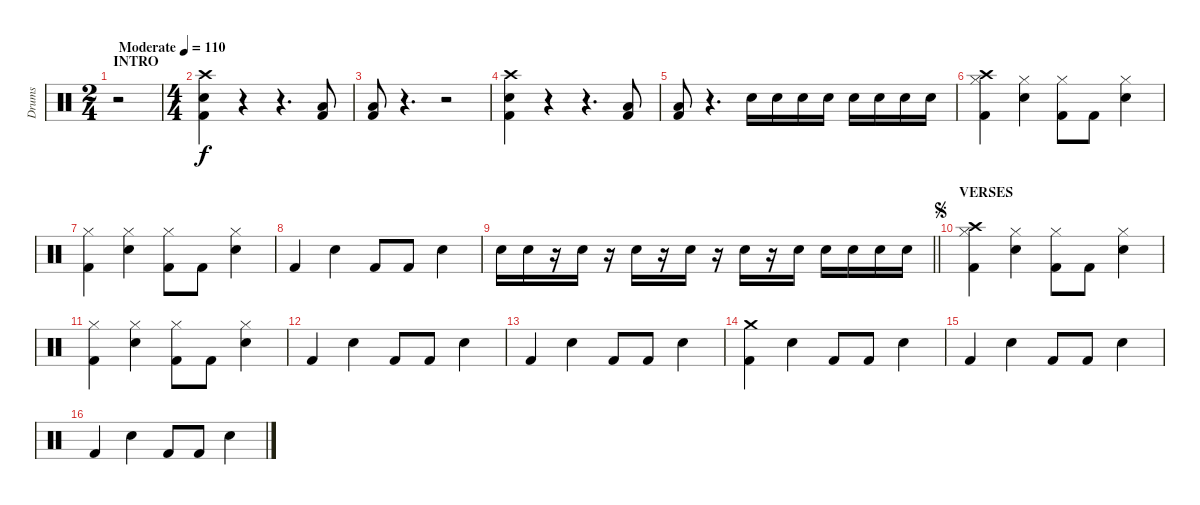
\track ("Drums" "Drums") {instrument percussion}
\staff {score}
\articulation defaults
\ts (2 4)
\section ("" "INTRO")
\tempo (110 "Moderate")
\clef neutral
\ks aminor
r.2{dy f} |
\ts (4 4)
("Crash high (hit)" "Electric Snare (hit)" "Kick (hit) 2").4 r.4 r.4{d} ("Low Tom (hit)" "Kick (hit) 2").8 |
("Low Tom (hit)" "Kick (hit) 2").8 r.4{d} r.2 |
("Crash high (hit)" "Electric Snare (hit)" "Kick (hit) 2").4 r.4 r.4{d} ("Low Tom (hit)" "Kick (hit) 2").8 |
("Low Tom (hit)" "Kick (hit) 2").8 r.4{d} "Electric Snare (hit)".16 "Electric Snare (hit)".16 "Electric Snare (hit)".16 "Electric Snare (hit)".16 "Electric Snare (hit)".16 "Electric Snare (hit)".16 "Electric Snare (hit)".16 "Electric Snare (hit)".16 |
("Crash high (hit)" "Hi-Hat (closed)" "Kick (hit) 2").4 ("Hi-Hat (closed)" "Electric Snare (hit)").4 ("Hi-Hat (closed)" "Kick (hit) 2").8 "Kick (hit) 2".8 ("Hi-Hat (closed)" "Electric Snare (hit)").4 |
("Hi-Hat (closed)" "Kick (hit) 2").4 ("Hi-Hat (closed)" "Electric Snare (hit)").4 ("Hi-Hat (closed)" "Kick (hit) 2").8 "Kick (hit) 2".8 ("Hi-Hat (closed)" "Electric Snare (hit)").4 |
"Kick (hit) 2".4 "Electric Snare (hit)".4 "Kick (hit) 2".8 "Kick (hit) 2".8 "Electric Snare (hit)".4 |
\barLineRight lightlight "Electric Snare (hit)".16 "Electric Snare (hit)".16
r.16 "Electric Snare (hit)".16 r.16 "Electric Snare (hit)".16 r.16 "Electric Snare (hit)".16 r.16 "Electric Snare (hit)".16 r.16 "Electric Snare (hit)".16 "Electric Snare (hit)".16 "Electric Snare (hit)".16 "Electric Snare (hit)".16 "Electric Snare (hit)".16 |
\section ("" "VERSES")
\jump segno
("Crash high (hit)" "Hi-Hat (closed)" "Kick (hit) 2").4 ("Hi-Hat (closed)" "Electric Snare (hit)").4 ("Hi-Hat (closed)" "Kick (hit) 2").8 "Kick (hit) 2".8 ("Hi-Hat (closed)" "Electric Snare (hit)").4 |
("Hi-Hat (closed)" "Kick (hit) 2").4 ("Hi-Hat (closed)" "Electric Snare (hit)").4 ("Hi-Hat (closed)" "Kick (hit) 2").8 "Kick (hit) 2".8 ("Hi-Hat (closed)" "Electric Snare (hit)").4 |
"Kick (hit) 2".4 "Electric Snare (hit)".4 "Kick (hit) 2".8 "Kick (hit) 2".8 "Electric Snare (hit)".4 |
"Kick (hit) 2".4 "Electric Snare (hit)".4 "Kick (hit) 2".8 "Kick (hit) 2".8 "Electric Snare (hit)".4 |
("Crash medium (hit)" "Kick (hit) 2").4 "Electric Snare (hit)".4 "Kick (hit) 2".8 "Kick (hit) 2".8 "Electric Snare (hit)".4 |
"Kick (hit) 2".4 "Electric Snare (hit)".4 "Kick (hit) 2".8 "Kick (hit) 2".8 "Electric Snare (hit)".4 |
"Kick (hit) 2".4 "Electric Snare (hit)".4 "Kick (hit) 2".8 "Kick (hit) 2".8 "Electric Snare (hit)".4
